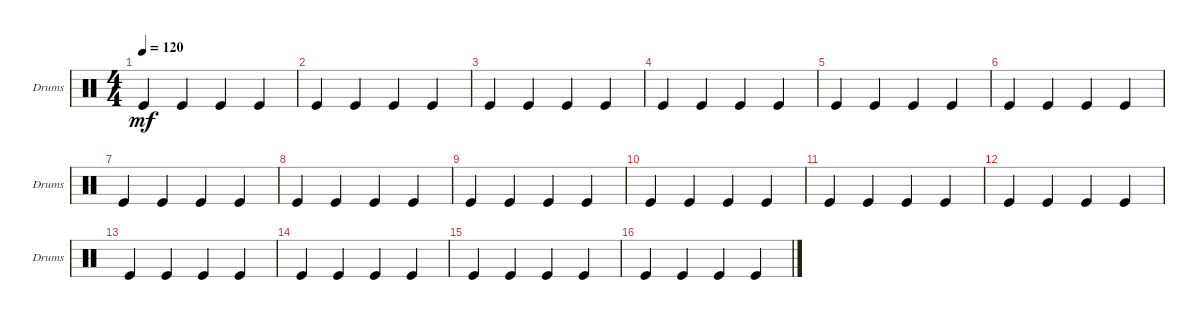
\bracketExtendMode groupsimilarinstruments
\singleTrackTrackNamePolicy allsystems
\multiTrackTrackNamePolicy allsystems
\firstSystemTrackNameOrientation horizontal
\otherSystemsTrackNameOrientation horizontal
\track ("Bass Drum" "Drums") {instrument percussion}
\staff {score}
\articulation defaults
\ts (4 4)
\tempo 120
\clef neutral
\ks c "Kick (hit)".4{dy mf} "Kick (hit)".4 "Kick (hit)".4 "Kick (hit)".4
|
"Kick (hit)".4 "Kick (hit)".4 "Kick (hit)".4 "Kick (hit)".4 |
"Kick (hit)".4 "Kick (hit)".4 "Kick (hit)".4 "Kick (hit)".4 |
"Kick (hit)".4 "Kick (hit)".4 "Kick (hit)".4 "Kick (hit)".4 |
"Kick (hit)".4 "Kick (hit)".4 "Kick (hit)".4 "Kick (hit)".4 |
"Kick (hit)".4 "Kick (hit)".4 "Kick (hit)".4 "Kick (hit)".4 |
"Kick (hit)".4 "Kick (hit)".4 "Kick (hit)".4 "Kick (hit)".4 |
"Kick (hit)".4 "Kick (hit)".4 "Kick (hit)".4 "Kick (hit)".4 |
"Kick (hit)".4 "Kick (hit)".4 "Kick (hit)".4 "Kick (hit)".4 |
"Kick (hit)".4 "Kick (hit)".4 "Kick (hit)".4 "Kick (hit)".4 |
"Kick (hit)".4 "Kick (hit)".4 "Kick (hit)".4 "Kick (hit)".4 |
"Kick (hit)".4 "Kick (hit)".4 "Kick (hit)".4 "Kick (hit)".4 |
"Kick (hit)".4 "Kick (hit)".4 "Kick (hit)".4 "Kick (hit)".4 |
"Kick (hit)".4 "Kick (hit)".4 "Kick (hit)".4 "Kick (hit)".4 |
"Kick (hit)".4 "Kick (hit)".4 "Kick (hit)".4 "Kick (hit)".4 |
"Kick (hit)".4 "Kick (hit)".4 "Kick (hit)".4 "Kick (hit)".4
